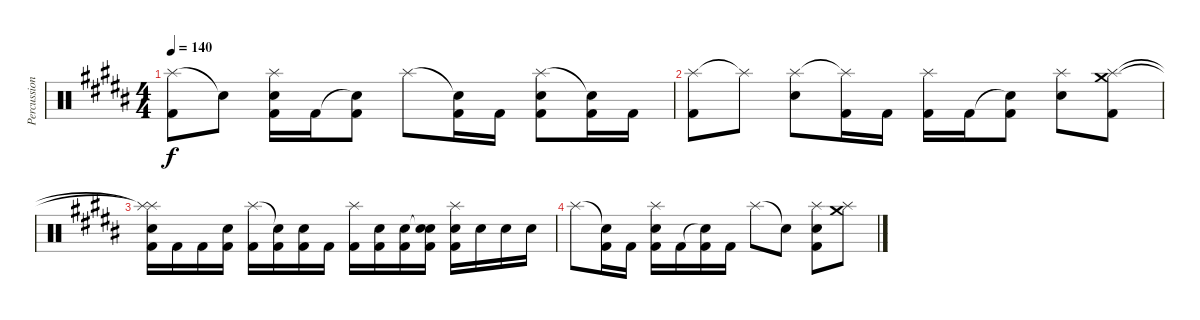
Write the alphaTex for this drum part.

\track ("Percussion" "Percussion") {instrument percussion}
\staff {score}
\articulation defaults
\ts (4 4)
\tempo 140
\clef neutral
\ks b
("Splash (hit)" "Kick (hit) 2").8{dy f} "Snare (hit)"{t}.8 ("Splash (hit)" "Electric Snare (hit)" "Kick (hit) 2").16 "Kick (hit) 2".16 ("Snare (hit)"{t} "Kick (hit) 2").8 "Splash (hit)".8 ("Snare (hit)"{t} "Kick (hit) 2").16 "Kick (hit) 2".16 ("Splash (hit)" "Electric Snare (hit)" "Kick (hit) 2").8 ("Snare (hit)"{t} "Kick (hit) 2").16 "Kick (hit) 2".16 |
("Splash (hit)" "Kick (hit) 2").8 "Splash (hit)"{t}.8 ("Splash (hit)" "Electric Snare (hit)").8 ("Splash (hit)"{t} "Kick (hit) 2").16 "Kick (hit) 2".16 ("Splash (hit)" "Kick (hit) 2").16 "Kick (hit) 2".16 ("Snare (hit)"{t} "Kick (hit) 2").8 ("Splash (hit)" "Electric Snare (hit)").8 ("Crash medium (hit)" "Splash (hit)" "Kick (hit) 2").8 |
("Splash (hit)"{t} "Splash (hit)"{t} "Electric Snare (hit)" "Kick (hit) 2").16 "Kick (hit) 2".16 "Kick (hit) 2".16 ("Electric Snare (hit)" "Kick (hit) 2").16 ("Splash (hit)" "Kick (hit) 2").16 ("Snare (hit)"{t} "Kick (hit) 2").16 ("Electric Snare (hit)" "Kick (hit) 2").16 "Kick (hit) 2".16 ("Splash (hit)" "Kick (hit) 2").16 ("Electric Snare (hit)" "Kick (hit) 2").16 ("Electric Snare (hit)" "Kick (hit) 2").16 ("Snare (hit)"{t} "Electric Snare (hit)" "Kick (hit) 2").16 ("Splash (hit)" "Electric Snare (hit)" "Kick (hit) 2").16 "Electric Snare (hit)".16 "Electric Snare (hit)".16 "Electric Snare (hit)".16 |
"Splash (hit)".8 ("Snare (hit)"{t} "Kick (hit) 2").16 "Kick (hit) 2".16 ("Splash (hit)" "Electric Snare (hit)" "Kick (hit) 2").16 "Kick (hit) 2".16 ("Snare (hit)"{t} "Kick (hit) 2").16 "Kick (hit) 2".16 "Splash (hit)".8 "Snare (hit)"{t}.8 ("Splash (hit)" "Electric Snare (hit)" "Kick (hit) 2").8 ("Crash medium (hit)" "Splash (hit)").8
